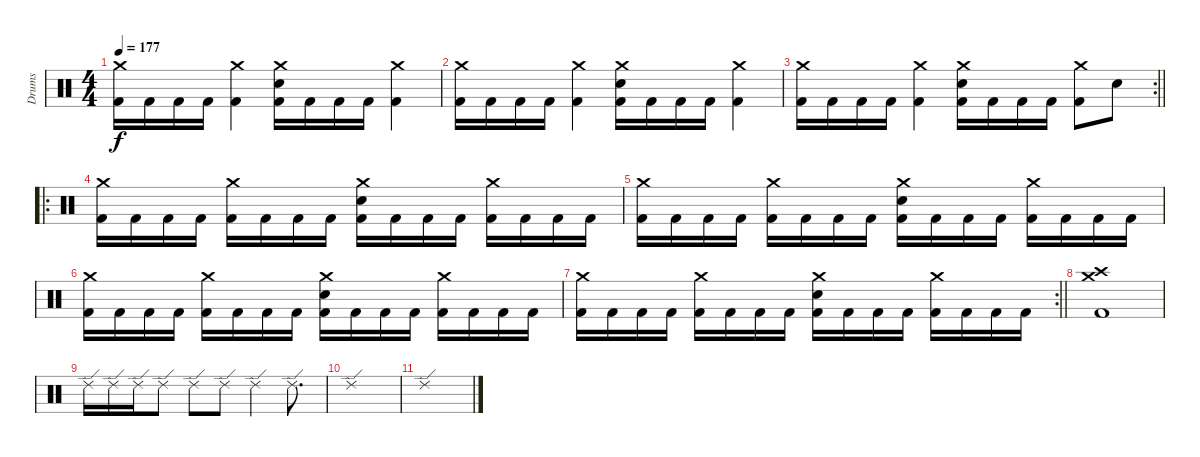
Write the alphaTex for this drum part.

\track ("Drums" "Drums") {instrument percussion}
\staff {score}
\articulation defaults
\ts (4 4)
\tempo 177
\clef neutral
\ks c
("Crash medium (hit)" "Kick (hit) 2").16{dy f} "Kick (hit) 2".16 "Kick (hit) 2".16 "Kick (hit) 2".16 ("Crash medium (hit)" "Kick (hit) 2").4 ("Crash medium (hit)" "Kick (hit) 2" "Snare (hit) 2").16 "Kick (hit) 2".16 "Kick (hit) 2".16 "Kick (hit) 2".16 ("Crash medium (hit)" "Kick (hit) 2").4 |
("Crash medium (hit)" "Kick (hit) 2").16 "Kick (hit) 2".16 "Kick (hit) 2".16 "Kick (hit) 2".16 ("Crash medium (hit)" "Kick (hit) 2").4 ("Crash medium (hit)" "Kick (hit) 2" "Snare (hit) 2").16 "Kick (hit) 2".16 "Kick (hit) 2".16 "Kick (hit) 2".16 ("Crash medium (hit)" "Kick (hit) 2").4 |
\rc 2
\barLineRight lightlight
("Crash medium (hit)" "Kick (hit) 2").16 "Kick (hit) 2".16 "Kick (hit) 2".16 "Kick (hit) 2".16 ("Crash medium (hit)" "Kick (hit) 2").4 ("Crash medium (hit)" "Kick (hit) 2" "Snare (hit) 2").16 "Kick (hit) 2".16 "Kick (hit) 2".16 "Kick (hit) 2".16 ("Crash medium (hit)" "Kick (hit) 2").8 "Snare (hit) 2".8 |
\ro
("Crash medium (hit)" "Kick (hit) 2").16 "Kick (hit) 2".16 "Kick (hit) 2".16 "Kick (hit) 2".16 ("Crash medium (hit)" "Kick (hit) 2").16 "Kick (hit) 2".16 "Kick (hit) 2".16 "Kick (hit) 2".16 ("Crash medium (hit)" "Kick (hit) 2" "Snare (hit) 2").16 "Kick (hit) 2".16 "Kick (hit) 2".16 "Kick (hit) 2".16 ("Crash medium (hit)" "Kick (hit) 2").16 "Kick (hit) 2".16 "Kick (hit) 2".16 "Kick (hit) 2".16 |
("Crash medium (hit)" "Kick (hit) 2").16 "Kick (hit) 2".16 "Kick (hit) 2".16 "Kick (hit) 2".16 ("Crash medium (hit)" "Kick (hit) 2").16 "Kick (hit) 2".16 "Kick (hit) 2".16 "Kick (hit) 2".16 ("Crash medium (hit)" "Kick (hit) 2" "Snare (hit) 2").16 "Kick (hit) 2".16 "Kick (hit) 2".16 "Kick (hit) 2".16 ("Crash medium (hit)" "Kick (hit) 2").16 "Kick (hit) 2".16 "Kick (hit) 2".16 "Kick (hit) 2".16 |
("Crash medium (hit)" "Kick (hit) 2").16 "Kick (hit) 2".16 "Kick (hit) 2".16 "Kick (hit) 2".16 ("Crash medium (hit)" "Kick (hit) 2").16 "Kick (hit) 2".16 "Kick (hit) 2".16 "Kick (hit) 2".16 ("Crash medium (hit)" "Kick (hit) 2" "Snare (hit) 2").16 "Kick (hit) 2".16 "Kick (hit) 2".16 "Kick (hit) 2".16 ("Crash medium (hit)" "Kick (hit) 2").16 "Kick (hit) 2".16 "Kick (hit) 2".16 "Kick (hit) 2".16 |
\rc 2
\barLineRight lightlight
("Crash medium (hit)" "Kick (hit) 2").16 "Kick (hit) 2".16 "Kick (hit) 2".16 "Kick (hit) 2".16 ("Crash medium (hit)" "Kick (hit) 2").16 "Kick (hit) 2".16 "Kick (hit) 2".16 "Kick (hit) 2".16 ("Crash medium (hit)" "Kick (hit) 2" "Snare (hit) 2").16 "Kick (hit) 2".16 "Kick (hit) 2".16 "Kick (hit) 2".16 ("Crash medium (hit)" "Kick (hit) 2").16 "Kick (hit) 2".16 "Kick (hit) 2".16 "Kick (hit) 2".16 |
("Crash high (hit)" "Crash medium (hit)" "Kick (hit) 2").1 |
"Ride (edge) 2".16 "Ride (edge) 2".16 "Ride (edge) 2".16 "Ride (edge) 2".8 "Ride (edge) 2".8 "Ride (edge) 2".8 "Ride (edge) 2".4 "Ride (edge) 2".8{d} |
"Ride (edge) 2".1 |
"Ride (edge) 2".1
